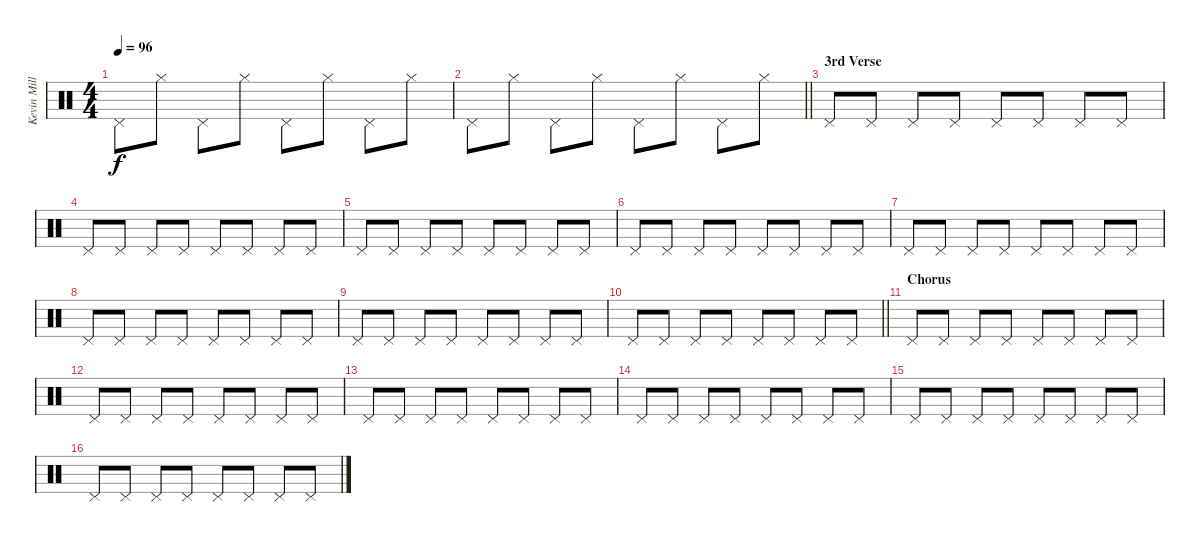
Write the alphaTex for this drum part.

\track ("Kevin Miller (Drums)" "Kevin Mill") {instrument percussion}
\staff {score}
\articulation defaults
\ts (4 4)
\tempo 96
\clef neutral
\ks c "Pedal Hi-Hat (hit)".8{dy f} "Hi-Hat (closed)".8 "Pedal Hi-Hat (hit)".8 "Hi-Hat (closed)".8 "Pedal Hi-Hat (hit)".8 "Hi-Hat (closed)".8 "Pedal Hi-Hat (hit)".8 "Hi-Hat (closed)".8
|
\barLineRight lightlight "Pedal Hi-Hat (hit)".8 "Hi-Hat (closed)".8 "Pedal Hi-Hat (hit)".8 "Hi-Hat (closed)".8 "Pedal Hi-Hat (hit)".8 "Hi-Hat (closed)".8 "Pedal Hi-Hat (hit)".8 "Hi-Hat (closed)".8
|
\section ("" "3rd Verse")
"Pedal Hi-Hat (hit)".8 "Pedal Hi-Hat (hit)".8 "Pedal Hi-Hat (hit)".8 "Pedal Hi-Hat (hit)".8 "Pedal Hi-Hat (hit)".8 "Pedal Hi-Hat (hit)".8 "Pedal Hi-Hat (hit)".8 "Pedal Hi-Hat (hit)".8 |
"Pedal Hi-Hat (hit)".8 "Pedal Hi-Hat (hit)".8 "Pedal Hi-Hat (hit)".8 "Pedal Hi-Hat (hit)".8 "Pedal Hi-Hat (hit)".8 "Pedal Hi-Hat (hit)".8 "Pedal Hi-Hat (hit)".8 "Pedal Hi-Hat (hit)".8 |
"Pedal Hi-Hat (hit)".8 "Pedal Hi-Hat (hit)".8 "Pedal Hi-Hat (hit)".8 "Pedal Hi-Hat (hit)".8 "Pedal Hi-Hat (hit)".8 "Pedal Hi-Hat (hit)".8 "Pedal Hi-Hat (hit)".8 "Pedal Hi-Hat (hit)".8 |
"Pedal Hi-Hat (hit)".8 "Pedal Hi-Hat (hit)".8 "Pedal Hi-Hat (hit)".8 "Pedal Hi-Hat (hit)".8 "Pedal Hi-Hat (hit)".8 "Pedal Hi-Hat (hit)".8 "Pedal Hi-Hat (hit)".8 "Pedal Hi-Hat (hit)".8 |
"Pedal Hi-Hat (hit)".8 "Pedal Hi-Hat (hit)".8 "Pedal Hi-Hat (hit)".8 "Pedal Hi-Hat (hit)".8 "Pedal Hi-Hat (hit)".8 "Pedal Hi-Hat (hit)".8 "Pedal Hi-Hat (hit)".8 "Pedal Hi-Hat (hit)".8 |
"Pedal Hi-Hat (hit)".8 "Pedal Hi-Hat (hit)".8 "Pedal Hi-Hat (hit)".8 "Pedal Hi-Hat (hit)".8 "Pedal Hi-Hat (hit)".8 "Pedal Hi-Hat (hit)".8 "Pedal Hi-Hat (hit)".8 "Pedal Hi-Hat (hit)".8 |
"Pedal Hi-Hat (hit)".8 "Pedal Hi-Hat (hit)".8 "Pedal Hi-Hat (hit)".8 "Pedal Hi-Hat (hit)".8 "Pedal Hi-Hat (hit)".8 "Pedal Hi-Hat (hit)".8 "Pedal Hi-Hat (hit)".8 "Pedal Hi-Hat (hit)".8 |
\barLineRight lightlight "Pedal Hi-Hat (hit)".8 "Pedal Hi-Hat (hit)".8 "Pedal Hi-Hat (hit)".8 "Pedal Hi-Hat (hit)".8 "Pedal Hi-Hat (hit)".8 "Pedal Hi-Hat (hit)".8 "Pedal Hi-Hat (hit)".8 "Pedal Hi-Hat (hit)".8
|
\section ("" "Chorus")
"Pedal Hi-Hat (hit)".8 "Pedal Hi-Hat (hit)".8 "Pedal Hi-Hat (hit)".8 "Pedal Hi-Hat (hit)".8 "Pedal Hi-Hat (hit)".8 "Pedal Hi-Hat (hit)".8 "Pedal Hi-Hat (hit)".8 "Pedal Hi-Hat (hit)".8 |
"Pedal Hi-Hat (hit)".8 "Pedal Hi-Hat (hit)".8 "Pedal Hi-Hat (hit)".8 "Pedal Hi-Hat (hit)".8 "Pedal Hi-Hat (hit)".8 "Pedal Hi-Hat (hit)".8 "Pedal Hi-Hat (hit)".8 "Pedal Hi-Hat (hit)".8 |
"Pedal Hi-Hat (hit)".8 "Pedal Hi-Hat (hit)".8 "Pedal Hi-Hat (hit)".8 "Pedal Hi-Hat (hit)".8 "Pedal Hi-Hat (hit)".8 "Pedal Hi-Hat (hit)".8 "Pedal Hi-Hat (hit)".8 "Pedal Hi-Hat (hit)".8 |
"Pedal Hi-Hat (hit)".8 "Pedal Hi-Hat (hit)".8 "Pedal Hi-Hat (hit)".8 "Pedal Hi-Hat (hit)".8 "Pedal Hi-Hat (hit)".8 "Pedal Hi-Hat (hit)".8 "Pedal Hi-Hat (hit)".8 "Pedal Hi-Hat (hit)".8 |
"Pedal Hi-Hat (hit)".8 "Pedal Hi-Hat (hit)".8 "Pedal Hi-Hat (hit)".8 "Pedal Hi-Hat (hit)".8 "Pedal Hi-Hat (hit)".8 "Pedal Hi-Hat (hit)".8 "Pedal Hi-Hat (hit)".8 "Pedal Hi-Hat (hit)".8 |
"Pedal Hi-Hat (hit)".8 "Pedal Hi-Hat (hit)".8 "Pedal Hi-Hat (hit)".8 "Pedal Hi-Hat (hit)".8 "Pedal Hi-Hat (hit)".8 "Pedal Hi-Hat (hit)".8 "Pedal Hi-Hat (hit)".8 "Pedal Hi-Hat (hit)".8
